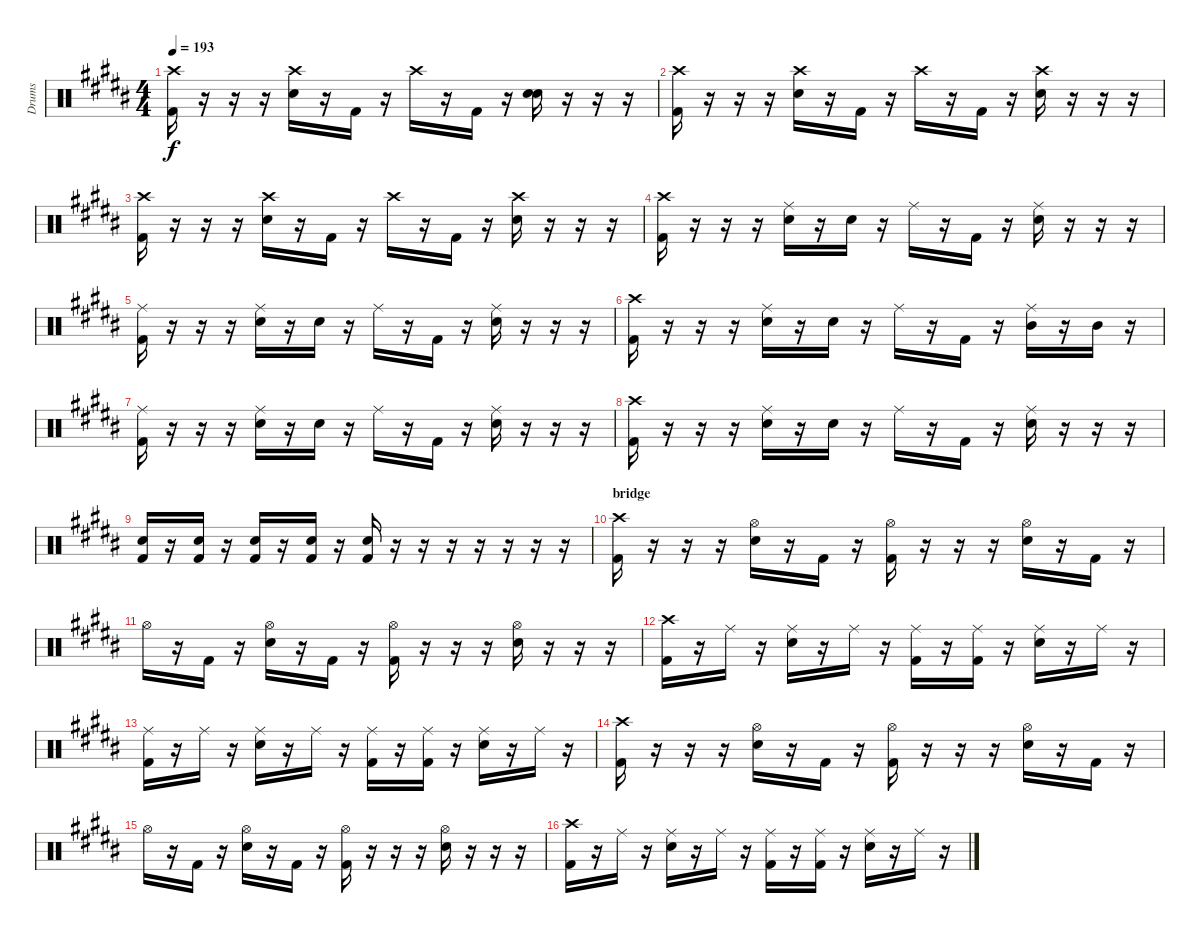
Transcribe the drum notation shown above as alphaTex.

\track ("Drums" "Drums") {instrument percussion}
\staff {score}
\articulation defaults
\ts (4 4)
\tempo 193
\clef neutral
\ks b
("Crash high (hit)" "Kick (hit) 2").16{dy f} r.16 r.16 r.16 ("Electric Snare (hit)" "Crash high (hit)").16 r.16 "Kick (hit) 2".16 r.16 "Crash high (hit)".16 r.16 "Kick (hit) 2".16 r.16 ("Electric Snare (hit)" "Electric Snare (hit)").16 r.16 r.16 r.16 |
("Crash high (hit)" "Kick (hit) 2").16 r.16 r.16 r.16 ("Electric Snare (hit)" "Crash high (hit)").16 r.16 "Kick (hit) 2".16 r.16 "Crash high (hit)".16 r.16 "Kick (hit) 2".16 r.16 ("Electric Snare (hit)" "Crash high (hit)").16 r.16 r.16 r.16 |
("Crash high (hit)" "Kick (hit) 2").16 r.16 r.16 r.16 ("Electric Snare (hit)" "Crash high (hit)").16 r.16 "Kick (hit) 2".16 r.16 "Crash high (hit)".16 r.16 "Kick (hit) 2".16 r.16 ("Electric Snare (hit)" "Crash high (hit)").16 r.16 r.16 r.16 |
("Crash high (hit)" "Kick (hit) 2").16 r.16 r.16 r.16 ("Electric Snare (hit)" "Ride (middle)").16 r.16 "Electric Snare (hit)".16 r.16 "Ride (middle)".16 r.16 "Kick (hit) 2".16 r.16 ("Electric Snare (hit)" "Ride (middle)").16 r.16 r.16 r.16 |
("Ride (middle)" "Kick (hit) 2").16 r.16 r.16 r.16 ("Electric Snare (hit)" "Ride (middle)").16 r.16 "Electric Snare (hit)".16 r.16 "Ride (middle)".16 r.16 "Kick (hit) 2".16 r.16 ("Electric Snare (hit)" "Ride (middle)").16 r.16 r.16 r.16 |
("Crash high (hit)" "Kick (hit) 2").16 r.16 r.16 r.16 ("Electric Snare (hit)" "Ride (middle)").16 r.16 "Electric Snare (hit)".16 r.16 "Ride (middle)".16 r.16 "Kick (hit) 2".16 r.16 ("Mid Tom (hit)" "Ride (middle)").16 r.16 "Mid Tom (hit)".16 r.16 |
("Ride (middle)" "Kick (hit) 2").16 r.16 r.16 r.16 ("Electric Snare (hit)" "Ride (middle)").16 r.16 "Electric Snare (hit)".16 r.16 "Ride (middle)".16 r.16 "Kick (hit) 2".16 r.16 ("Electric Snare (hit)" "Ride (middle)").16 r.16 r.16 r.16 |
("Crash high (hit)" "Kick (hit) 2").16 r.16 r.16 r.16 ("Electric Snare (hit)" "Ride (middle)").16 r.16 "Electric Snare (hit)".16 r.16 "Ride (middle)".16 r.16 "Kick (hit) 2".16 r.16 ("Electric Snare (hit)" "Ride (middle)").16 r.16 r.16 r.16 |
("Electric Snare (hit)" "Kick (hit) 2").16 r.16 ("Electric Snare (hit)" "Kick (hit) 2").16 r.16 ("Electric Snare (hit)" "Kick (hit) 2").16 r.16 ("Electric Snare (hit)" "Kick (hit) 2").16 r.16 ("Electric Snare (hit)" "Kick (hit) 2").16 r.16 r.16 r.16 r.16 r.16 r.16 r.16 |
\section ("" "bridge")
("Crash high (hit)" "Kick (hit) 2").16 r.16 r.16 r.16 ("Electric Snare (hit)" "Hi-Hat (open)").16 r.16 "Kick (hit) 2".16 r.16 ("Hi-Hat (open)" "Kick (hit) 2").16 r.16 r.16 r.16 ("Electric Snare (hit)" "Hi-Hat (open)").16 r.16 "Kick (hit) 2".16 r.16 |
"Hi-Hat (open)".16 r.16 "Kick (hit) 2".16 r.16 ("Electric Snare (hit)" "Hi-Hat (open)").16 r.16 "Kick (hit) 2".16 r.16 ("Hi-Hat (open)" "Kick (hit) 2").16 r.16 r.16 r.16 ("Electric Snare (hit)" "Hi-Hat (open)").16 r.16 r.16 r.16 |
("Crash high (hit)" "Kick (hit) 2").16 r.16 "Ride (middle)".16 r.16 ("Electric Snare (hit)" "Ride (middle)").16 r.16 "Ride (middle)".16 r.16 ("Ride (middle)" "Kick (hit) 2").16 r.16 ("Ride (middle)" "Kick (hit) 2").16 r.16 ("Electric Snare (hit)" "Ride (middle)").16 r.16 "Ride (middle)".16 r.16 |
("Ride (middle)" "Kick (hit) 2").16 r.16 "Ride (middle)".16 r.16 ("Electric Snare (hit)" "Ride (middle)").16 r.16 "Ride (middle)".16 r.16 ("Ride (middle)" "Kick (hit) 2").16 r.16 ("Ride (middle)" "Kick (hit) 2").16 r.16 ("Electric Snare (hit)" "Ride (middle)").16 r.16 "Ride (middle)".16 r.16 |
("Crash high (hit)" "Kick (hit) 2").16 r.16 r.16 r.16 ("Electric Snare (hit)" "Hi-Hat (open)").16 r.16 "Kick (hit) 2".16 r.16 ("Hi-Hat (open)" "Kick (hit) 2").16 r.16 r.16 r.16 ("Electric Snare (hit)" "Hi-Hat (open)").16 r.16 "Kick (hit) 2".16 r.16 |
"Hi-Hat (open)".16 r.16 "Kick (hit) 2".16 r.16 ("Electric Snare (hit)" "Hi-Hat (open)").16 r.16 "Kick (hit) 2".16 r.16 ("Hi-Hat (open)" "Kick (hit) 2").16 r.16 r.16 r.16 ("Electric Snare (hit)" "Hi-Hat (open)").16 r.16 r.16 r.16 |
("Crash high (hit)" "Kick (hit) 2").16 r.16 "Ride (middle)".16 r.16 ("Electric Snare (hit)" "Ride (middle)").16 r.16 "Ride (middle)".16 r.16 ("Ride (middle)" "Kick (hit) 2").16 r.16 ("Ride (middle)" "Kick (hit) 2").16 r.16 ("Electric Snare (hit)" "Ride (middle)").16 r.16 "Ride (middle)".16 r.16
